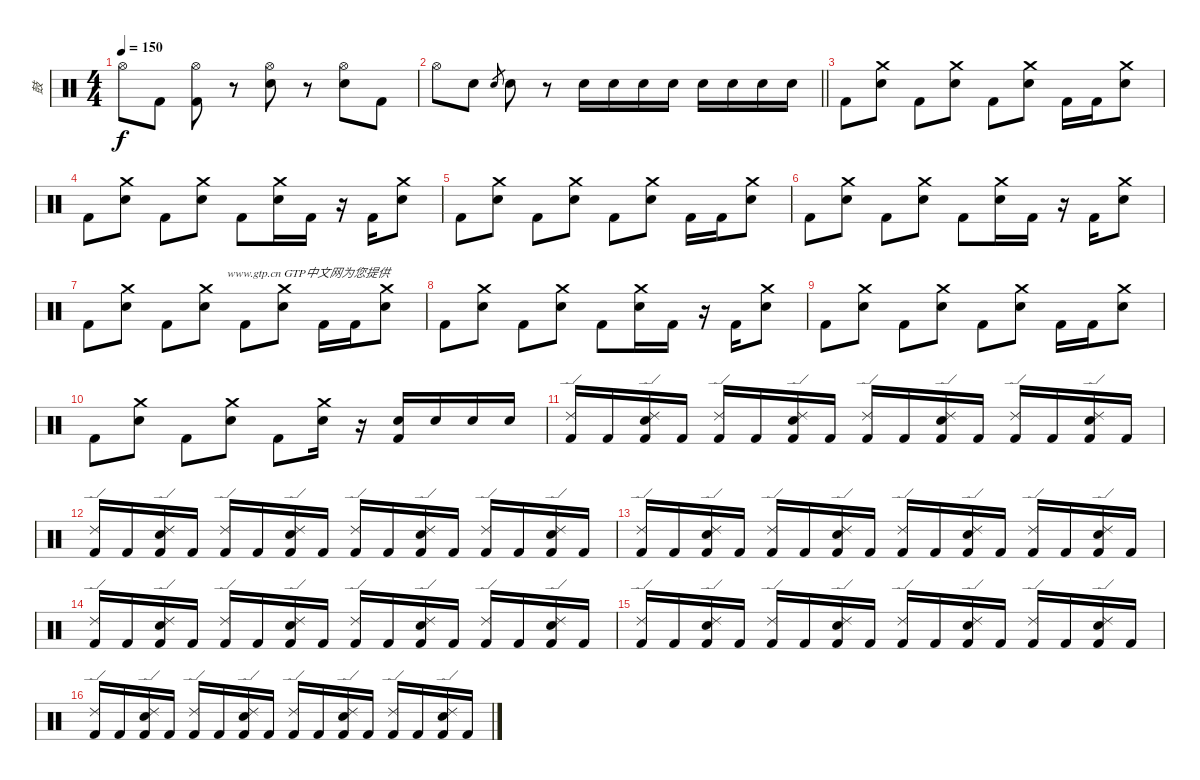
\track ("鼓" "鼓") {instrument percussion}
\staff {score}
\articulation defaults
\ts (4 4)
\tempo 150
\clef neutral
\ks c "Hi-Hat (open)".8{dy f} "Kick (hit) 2".8
("Hi-Hat (open)" "Kick (hit) 2").8 r.8 ("Hi-Hat (open)" "Electric Snare (hit)").8 r.8 ("Hi-Hat (open)" "Electric Snare (hit)").8 "Kick (hit) 2".8 |
\barLineRight lightlight "Hi-Hat (open)".8 "Electric Snare (hit)".8 "Electric Snare (hit)".8{gr} "Electric Snare (hit)".8
r.8 "Electric Snare (hit)".16 "Electric Snare (hit)".16 "Electric Snare (hit)".16 "Electric Snare (hit)".16 "Electric Snare (hit)".16 "Electric Snare (hit)".16 "Electric Snare (hit)".16 "Electric Snare (hit)".16 |
"Kick (hit) 2".8 ("Crash medium (hit)" "Electric Snare (hit)").8 "Kick (hit) 2".8 ("Crash medium (hit)" "Electric Snare (hit)").8 "Kick (hit) 2".8 ("Crash medium (hit)" "Electric Snare (hit)").8 "Kick (hit) 2".16 "Kick (hit) 2".16 ("Crash medium (hit)" "Electric Snare (hit)").8 |
"Kick (hit) 2".8 ("Crash medium (hit)" "Electric Snare (hit)").8 "Kick (hit) 2".8 ("Crash medium (hit)" "Electric Snare (hit)").8 "Kick (hit) 2".8 ("Crash medium (hit)" "Electric Snare (hit)").16 "Kick (hit) 2".16 r.16 "Kick (hit) 2".16 ("Crash medium (hit)" "Electric Snare (hit)").8 |
"Kick (hit) 2".8 ("Crash medium (hit)" "Electric Snare (hit)").8 "Kick (hit) 2".8 ("Crash medium (hit)" "Electric Snare (hit)").8 "Kick (hit) 2".8 ("Crash medium (hit)" "Electric Snare (hit)").8 "Kick (hit) 2".16 "Kick (hit) 2".16 ("Crash medium (hit)" "Electric Snare (hit)").8 |
"Kick (hit) 2".8 ("Crash medium (hit)" "Electric Snare (hit)").8 "Kick (hit) 2".8 ("Crash medium (hit)" "Electric Snare (hit)").8 "Kick (hit) 2".8 ("Crash medium (hit)" "Electric Snare (hit)").16 "Kick (hit) 2".16 r.16 "Kick (hit) 2".16 ("Crash medium (hit)" "Electric Snare (hit)").8 |
"Kick (hit) 2".8 ("Crash medium (hit)" "Electric Snare (hit)").8 "Kick (hit) 2".8{txt "                    www.gtp.cn GTP中文网为您提供"} ("Crash medium (hit)" "Electric Snare (hit)").8 "Kick (hit) 2".8 ("Crash medium (hit)" "Electric Snare (hit)").8 "Kick (hit) 2".16 "Kick (hit) 2".16 ("Crash medium (hit)" "Electric Snare (hit)").8 |
"Kick (hit) 2".8 ("Crash medium (hit)" "Electric Snare (hit)").8 "Kick (hit) 2".8 ("Crash medium (hit)" "Electric Snare (hit)").8 "Kick (hit) 2".8 ("Crash medium (hit)" "Electric Snare (hit)").16 "Kick (hit) 2".16 r.16 "Kick (hit) 2".16 ("Crash medium (hit)" "Electric Snare (hit)").8 |
"Kick (hit) 2".8 ("Crash medium (hit)" "Electric Snare (hit)").8 "Kick (hit) 2".8 ("Crash medium (hit)" "Electric Snare (hit)").8 "Kick (hit) 2".8 ("Crash medium (hit)" "Electric Snare (hit)").8 "Kick (hit) 2".16 "Kick (hit) 2".16 ("Crash medium (hit)" "Electric Snare (hit)").8 |
"Kick (hit) 2".8 ("Crash medium (hit)" "Electric Snare (hit)").8 "Kick (hit) 2".8 ("Crash medium (hit)" "Electric Snare (hit)").8 "Kick (hit) 2".8 ("Crash medium (hit)" "Electric Snare (hit)").16 r.16 ("Electric Snare (hit)" "Kick (hit) 2").16 "Electric Snare (hit)".16 "Electric Snare (hit)".16 "Electric Snare (hit)".16 |
("Ride (edge) 2" "Kick (hit) 2").16 "Kick (hit) 2".16 ("Ride (edge) 2" "Kick (hit) 2" "Electric Snare (hit)").16 "Kick (hit) 2".16 ("Ride (edge) 2" "Kick (hit) 2").16 "Kick (hit) 2".16 ("Ride (edge) 2" "Kick (hit) 2" "Electric Snare (hit)").16 "Kick (hit) 2".16 ("Ride (edge) 2" "Kick (hit) 2").16 "Kick (hit) 2".16 ("Ride (edge) 2" "Kick (hit) 2" "Electric Snare (hit)").16 "Kick (hit) 2".16 ("Ride (edge) 2" "Kick (hit) 2").16 "Kick (hit) 2".16 ("Ride (edge) 2" "Kick (hit) 2" "Electric Snare (hit)").16 "Kick (hit) 2".16 |
("Ride (edge) 2" "Kick (hit) 2").16 "Kick (hit) 2".16 ("Ride (edge) 2" "Kick (hit) 2" "Electric Snare (hit)").16 "Kick (hit) 2".16 ("Ride (edge) 2" "Kick (hit) 2").16 "Kick (hit) 2".16 ("Ride (edge) 2" "Kick (hit) 2" "Electric Snare (hit)").16 "Kick (hit) 2".16 ("Ride (edge) 2" "Kick (hit) 2").16 "Kick (hit) 2".16 ("Ride (edge) 2" "Kick (hit) 2" "Electric Snare (hit)").16 "Kick (hit) 2".16 ("Ride (edge) 2" "Kick (hit) 2").16 "Kick (hit) 2".16 ("Ride (edge) 2" "Kick (hit) 2" "Electric Snare (hit)").16 "Kick (hit) 2".16 |
("Ride (edge) 2" "Kick (hit) 2").16 "Kick (hit) 2".16 ("Ride (edge) 2" "Kick (hit) 2" "Electric Snare (hit)").16 "Kick (hit) 2".16 ("Ride (edge) 2" "Kick (hit) 2").16 "Kick (hit) 2".16 ("Ride (edge) 2" "Kick (hit) 2" "Electric Snare (hit)").16 "Kick (hit) 2".16 ("Ride (edge) 2" "Kick (hit) 2").16 "Kick (hit) 2".16 ("Ride (edge) 2" "Kick (hit) 2" "Electric Snare (hit)").16 "Kick (hit) 2".16 ("Ride (edge) 2" "Kick (hit) 2").16 "Kick (hit) 2".16 ("Ride (edge) 2" "Kick (hit) 2" "Electric Snare (hit)").16 "Kick (hit) 2".16 |
("Ride (edge) 2" "Kick (hit) 2").16 "Kick (hit) 2".16 ("Ride (edge) 2" "Kick (hit) 2" "Electric Snare (hit)").16 "Kick (hit) 2".16 ("Ride (edge) 2" "Kick (hit) 2").16 "Kick (hit) 2".16 ("Ride (edge) 2" "Kick (hit) 2" "Electric Snare (hit)").16 "Kick (hit) 2".16 ("Ride (edge) 2" "Kick (hit) 2").16 "Kick (hit) 2".16 ("Ride (edge) 2" "Kick (hit) 2" "Electric Snare (hit)").16 "Kick (hit) 2".16 ("Ride (edge) 2" "Kick (hit) 2").16 "Kick (hit) 2".16 ("Ride (edge) 2" "Kick (hit) 2" "Electric Snare (hit)").16 "Kick (hit) 2".16 |
("Ride (edge) 2" "Kick (hit) 2").16 "Kick (hit) 2".16 ("Ride (edge) 2" "Kick (hit) 2" "Electric Snare (hit)").16 "Kick (hit) 2".16 ("Ride (edge) 2" "Kick (hit) 2").16 "Kick (hit) 2".16 ("Ride (edge) 2" "Kick (hit) 2" "Electric Snare (hit)").16 "Kick (hit) 2".16 ("Ride (edge) 2" "Kick (hit) 2").16 "Kick (hit) 2".16 ("Ride (edge) 2" "Kick (hit) 2" "Electric Snare (hit)").16 "Kick (hit) 2".16 ("Ride (edge) 2" "Kick (hit) 2").16 "Kick (hit) 2".16 ("Ride (edge) 2" "Kick (hit) 2" "Electric Snare (hit)").16 "Kick (hit) 2".16 |
("Ride (edge) 2" "Kick (hit) 2").16 "Kick (hit) 2".16 ("Ride (edge) 2" "Kick (hit) 2" "Electric Snare (hit)").16 "Kick (hit) 2".16 ("Ride (edge) 2" "Kick (hit) 2").16 "Kick (hit) 2".16 ("Ride (edge) 2" "Kick (hit) 2" "Electric Snare (hit)").16 "Kick (hit) 2".16 ("Ride (edge) 2" "Kick (hit) 2").16 "Kick (hit) 2".16 ("Ride (edge) 2" "Kick (hit) 2" "Electric Snare (hit)").16 "Kick (hit) 2".16 ("Ride (edge) 2" "Kick (hit) 2").16 "Kick (hit) 2".16 ("Ride (edge) 2" "Kick (hit) 2" "Electric Snare (hit)").16 "Kick (hit) 2".16
